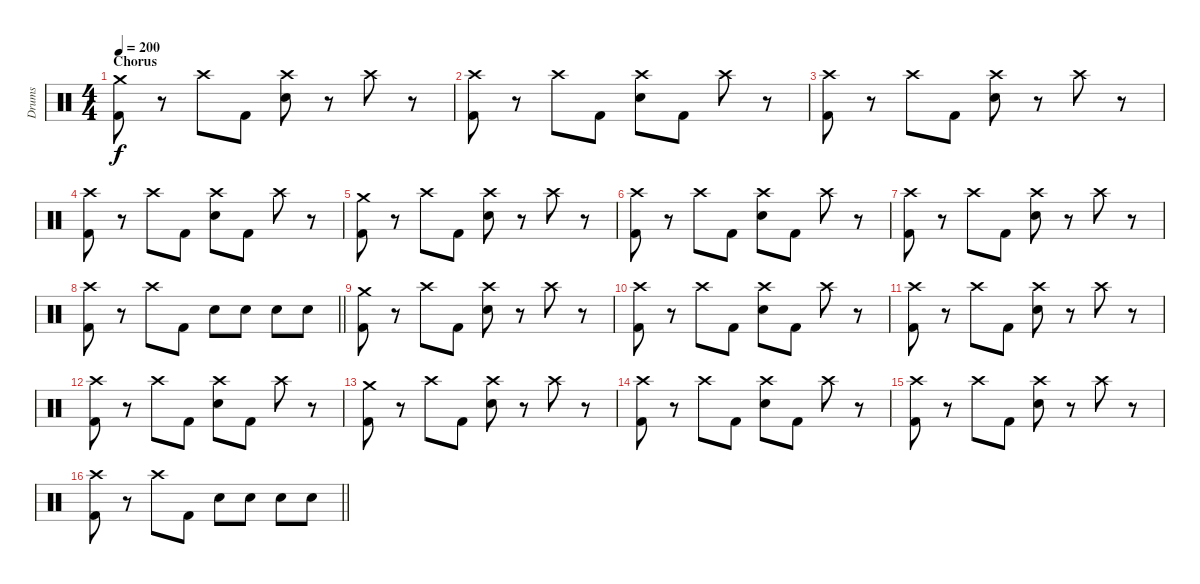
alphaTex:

\track ("Drums" "Drums") {instrument percussion}
\staff {score}
\articulation defaults
\ts (4 4)
\section ("" "Chorus")
\tempo 200
\clef neutral
\ks c
("Crash medium (hit)" "Kick (hit) 2").8{dy f} r.8 "Crash high (hit)".8 "Kick (hit) 2".8 ("Crash high (hit)" "Electric Snare (hit)").8 r.8 "Crash high (hit)".8 r.8 |
("Crash high (hit)" "Kick (hit) 2").8 r.8 "Crash high (hit)".8 "Kick (hit) 2".8 ("Crash high (hit)" "Electric Snare (hit)").8 "Kick (hit) 2".8 "Crash high (hit)".8 r.8 |
("Crash high (hit)" "Kick (hit) 2").8 r.8 "Crash high (hit)".8 "Kick (hit) 2".8 ("Crash high (hit)" "Electric Snare (hit)").8 r.8 "Crash high (hit)".8 r.8 |
("Crash high (hit)" "Kick (hit) 2").8 r.8 "Crash high (hit)".8 "Kick (hit) 2".8 ("Crash high (hit)" "Electric Snare (hit)").8 "Kick (hit) 2".8 "Crash high (hit)".8 r.8 |
("Crash medium (hit)" "Kick (hit) 2").8 r.8 "Crash high (hit)".8 "Kick (hit) 2".8 ("Crash high (hit)" "Electric Snare (hit)").8 r.8 "Crash high (hit)".8 r.8 |
("Crash high (hit)" "Kick (hit) 2").8 r.8 "Crash high (hit)".8 "Kick (hit) 2".8 ("Crash high (hit)" "Electric Snare (hit)").8 "Kick (hit) 2".8 "Crash high (hit)".8 r.8 |
("Crash high (hit)" "Kick (hit) 2").8 r.8 "Crash high (hit)".8 "Kick (hit) 2".8 ("Crash high (hit)" "Electric Snare (hit)").8 r.8 "Crash high (hit)".8 r.8 |
\barLineRight lightlight
("Crash high (hit)" "Kick (hit) 2").8 r.8 "Crash high (hit)".8 "Kick (hit) 2".8 "Electric Snare (hit)".8 "Electric Snare (hit)".8 "Electric Snare (hit)".8 "Electric Snare (hit)".8 |
("Crash medium (hit)" "Kick (hit) 2").8 r.8 "Crash high (hit)".8 "Kick (hit) 2".8 ("Crash high (hit)" "Electric Snare (hit)").8 r.8 "Crash high (hit)".8 r.8 |
("Crash high (hit)" "Kick (hit) 2").8 r.8 "Crash high (hit)".8 "Kick (hit) 2".8 ("Crash high (hit)" "Electric Snare (hit)").8 "Kick (hit) 2".8 "Crash high (hit)".8 r.8 |
("Crash high (hit)" "Kick (hit) 2").8 r.8 "Crash high (hit)".8 "Kick (hit) 2".8 ("Crash high (hit)" "Electric Snare (hit)").8 r.8 "Crash high (hit)".8 r.8 |
("Crash high (hit)" "Kick (hit) 2").8 r.8 "Crash high (hit)".8 "Kick (hit) 2".8 ("Crash high (hit)" "Electric Snare (hit)").8 "Kick (hit) 2".8 "Crash high (hit)".8 r.8 |
("Crash medium (hit)" "Kick (hit) 2").8 r.8 "Crash high (hit)".8 "Kick (hit) 2".8 ("Crash high (hit)" "Electric Snare (hit)").8 r.8 "Crash high (hit)".8 r.8 |
("Crash high (hit)" "Kick (hit) 2").8 r.8 "Crash high (hit)".8 "Kick (hit) 2".8 ("Crash high (hit)" "Electric Snare (hit)").8 "Kick (hit) 2".8 "Crash high (hit)".8 r.8 |
("Crash high (hit)" "Kick (hit) 2").8 r.8 "Crash high (hit)".8 "Kick (hit) 2".8 ("Crash high (hit)" "Electric Snare (hit)").8 r.8 "Crash high (hit)".8 r.8 |
\barLineRight lightlight
("Crash high (hit)" "Kick (hit) 2").8 r.8 "Crash high (hit)".8 "Kick (hit) 2".8 "Electric Snare (hit)".8 "Electric Snare (hit)".8 "Electric Snare (hit)".8 "Electric Snare (hit)".8
